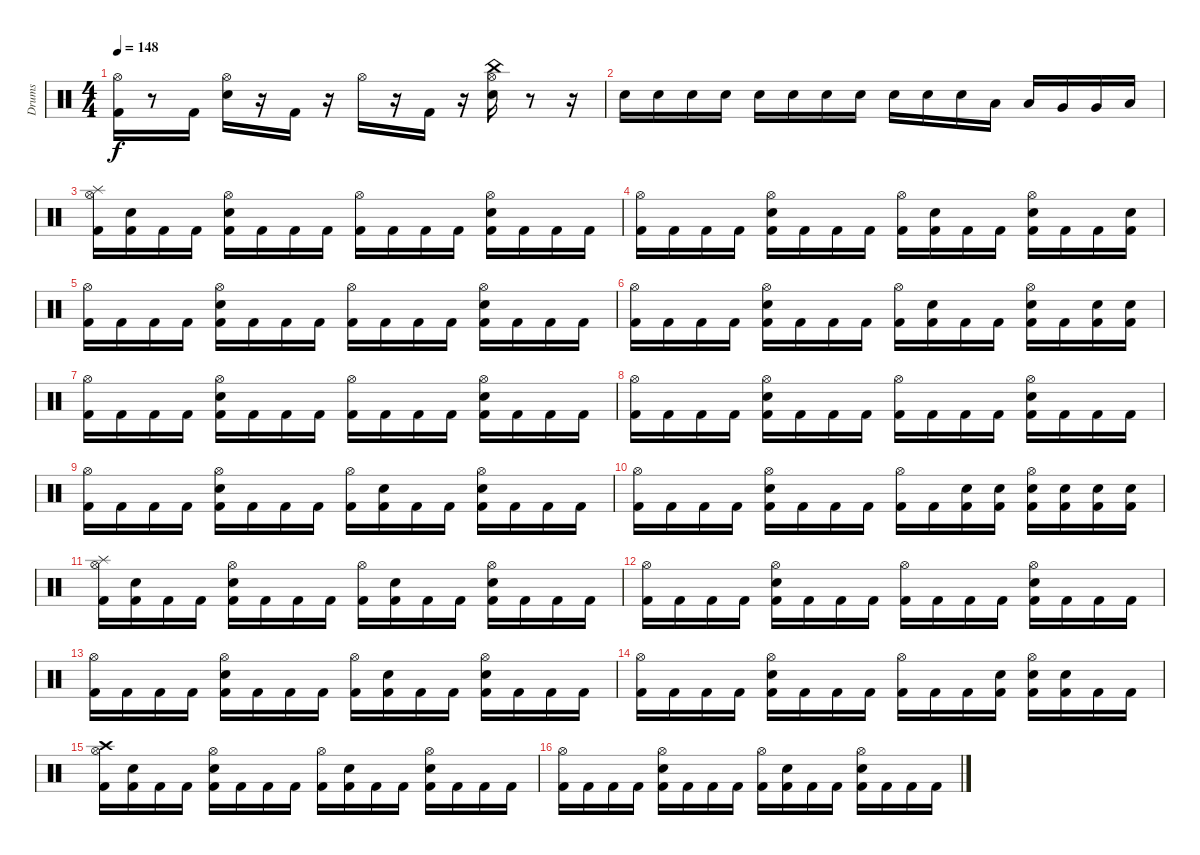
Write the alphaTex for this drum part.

\track ("Drums" "Drums") {instrument percussion}
\staff {score}
\articulation defaults
\ts (4 4)
\tempo 148
\clef neutral
\ks c
("Hi-Hat (open)" "Kick (hit) 2").16{dy f} r.8 "Kick (hit) 2".16 ("Hi-Hat (open)" "Snare (hit) 2").16 r.16 "Kick (hit) 2".16 r.16 "Hi-Hat (open)".16 r.16 "Kick (hit) 2".16 r.16 ("Hi-Hat (open)" "China (hit)" "Snare (hit) 2").16 r.8 r.16 |
"Snare (hit) 2".16 "Snare (hit) 2".16 "Snare (hit) 2".16 "Snare (hit) 2".16 "Snare (hit) 2".16 "Snare (hit) 2".16 "Snare (hit) 2".16 "Snare (hit) 2".16 "Snare (hit) 2".16 "Snare (hit) 2".16 "Snare (hit) 2".16 "Low Tom (hit)".16 "Low Tom (hit)".16 "Very Low Tom (hit)".16 "Very Low Tom (hit)".16 "Low Floor Tom (hit)".16 |
("Hi-Hat (open)" "Splash (hit)" "Kick (hit) 2").16 ("Snare (hit)" "Kick (hit) 2").16 "Kick (hit) 2".16 "Kick (hit) 2".16 ("Hi-Hat (open)" "Kick (hit) 2" "Snare (hit) 2").16 "Kick (hit) 2".16 "Kick (hit) 2".16 "Kick (hit) 2".16 ("Hi-Hat (open)" "Kick (hit) 2").16 "Kick (hit) 2".16 "Kick (hit) 2".16 "Kick (hit) 2".16 ("Hi-Hat (open)" "Kick (hit) 2" "Snare (hit) 2").16 "Kick (hit) 2".16 "Kick (hit) 2".16 "Kick (hit) 2".16 |
("Hi-Hat (open)" "Kick (hit) 2").16 "Kick (hit) 2".16 "Kick (hit) 2".16 "Kick (hit) 2".16 ("Hi-Hat (open)" "Kick (hit) 2" "Snare (hit) 2").16 "Kick (hit) 2".16 "Kick (hit) 2".16 "Kick (hit) 2".16 ("Hi-Hat (open)" "Kick (hit) 2").16 ("Kick (hit) 2" "Snare (hit) 2").16 "Kick (hit) 2".16 "Kick (hit) 2".16 ("Hi-Hat (open)" "Kick (hit) 2" "Snare (hit) 2").16 "Kick (hit) 2".16 "Kick (hit) 2".16 ("Kick (hit) 2" "Snare (hit) 2").16 |
("Hi-Hat (open)" "Kick (hit) 2").16 "Kick (hit) 2".16 "Kick (hit) 2".16 "Kick (hit) 2".16 ("Hi-Hat (open)" "Kick (hit) 2" "Snare (hit) 2").16 "Kick (hit) 2".16 "Kick (hit) 2".16 "Kick (hit) 2".16 ("Hi-Hat (open)" "Kick (hit) 2").16 "Kick (hit) 2".16 "Kick (hit) 2".16 "Kick (hit) 2".16 ("Hi-Hat (open)" "Kick (hit) 2" "Snare (hit) 2").16 "Kick (hit) 2".16 "Kick (hit) 2".16 "Kick (hit) 2".16 |
("Hi-Hat (open)" "Kick (hit) 2").16 "Kick (hit) 2".16 "Kick (hit) 2".16 "Kick (hit) 2".16 ("Hi-Hat (open)" "Kick (hit) 2" "Snare (hit) 2").16 "Kick (hit) 2".16 "Kick (hit) 2".16 "Kick (hit) 2".16 ("Hi-Hat (open)" "Kick (hit) 2").16 ("Kick (hit) 2" "Snare (hit) 2").16 "Kick (hit) 2".16 "Kick (hit) 2".16 ("Hi-Hat (open)" "Kick (hit) 2" "Snare (hit) 2").16 "Kick (hit) 2".16 ("Kick (hit) 2" "Snare (hit) 2").16 ("Kick (hit) 2" "Snare (hit) 2").16 |
("Hi-Hat (open)" "Kick (hit) 2").16 "Kick (hit) 2".16 "Kick (hit) 2".16 "Kick (hit) 2".16 ("Hi-Hat (open)" "Kick (hit) 2" "Snare (hit) 2").16 "Kick (hit) 2".16 "Kick (hit) 2".16 "Kick (hit) 2".16 ("Hi-Hat (open)" "Kick (hit) 2").16 "Kick (hit) 2".16 "Kick (hit) 2".16 "Kick (hit) 2".16 ("Hi-Hat (open)" "Kick (hit) 2" "Snare (hit) 2").16 "Kick (hit) 2".16 "Kick (hit) 2".16 "Kick (hit) 2".16 |
("Hi-Hat (open)" "Kick (hit) 2").16 "Kick (hit) 2".16 "Kick (hit) 2".16 "Kick (hit) 2".16 ("Hi-Hat (open)" "Kick (hit) 2" "Snare (hit) 2").16 "Kick (hit) 2".16 "Kick (hit) 2".16 "Kick (hit) 2".16 ("Hi-Hat (open)" "Kick (hit) 2").16 "Kick (hit) 2".16 "Kick (hit) 2".16 "Kick (hit) 2".16 ("Hi-Hat (open)" "Kick (hit) 2" "Snare (hit) 2").16 "Kick (hit) 2".16 "Kick (hit) 2".16 "Kick (hit) 2".16 |
("Hi-Hat (open)" "Kick (hit) 2").16 "Kick (hit) 2".16 "Kick (hit) 2".16 "Kick (hit) 2".16 ("Hi-Hat (open)" "Kick (hit) 2" "Snare (hit) 2").16 "Kick (hit) 2".16 "Kick (hit) 2".16 "Kick (hit) 2".16 ("Hi-Hat (open)" "Kick (hit) 2").16 ("Kick (hit) 2" "Snare (hit) 2").16 "Kick (hit) 2".16 "Kick (hit) 2".16 ("Hi-Hat (open)" "Kick (hit) 2" "Snare (hit) 2").16 "Kick (hit) 2".16 "Kick (hit) 2".16 "Kick (hit) 2".16 |
("Hi-Hat (open)" "Kick (hit) 2").16 "Kick (hit) 2".16 "Kick (hit) 2".16 "Kick (hit) 2".16 ("Hi-Hat (open)" "Kick (hit) 2" "Snare (hit) 2").16 "Kick (hit) 2".16 "Kick (hit) 2".16 "Kick (hit) 2".16 ("Hi-Hat (open)" "Kick (hit) 2").16 "Kick (hit) 2".16 ("Kick (hit) 2" "Snare (hit) 2").16 ("Kick (hit) 2" "Snare (hit) 2").16 ("Hi-Hat (open)" "Kick (hit) 2" "Snare (hit) 2").16 ("Kick (hit) 2" "Snare (hit) 2").16 ("Kick (hit) 2" "Snare (hit) 2").16 ("Kick (hit) 2" "Snare (hit) 2").16 |
("Hi-Hat (open)" "Splash (hit)" "Kick (hit) 2").16 ("Snare (hit)" "Kick (hit) 2").16 "Kick (hit) 2".16 "Kick (hit) 2".16 ("Hi-Hat (open)" "Kick (hit) 2" "Snare (hit) 2").16 "Kick (hit) 2".16 "Kick (hit) 2".16 "Kick (hit) 2".16 ("Hi-Hat (open)" "Kick (hit) 2").16 ("Kick (hit) 2" "Snare (hit) 2").16 "Kick (hit) 2".16 "Kick (hit) 2".16 ("Hi-Hat (open)" "Kick (hit) 2" "Snare (hit) 2").16 "Kick (hit) 2".16 "Kick (hit) 2".16 "Kick (hit) 2".16 |
("Hi-Hat (open)" "Kick (hit) 2").16 "Kick (hit) 2".16 "Kick (hit) 2".16 "Kick (hit) 2".16 ("Hi-Hat (open)" "Kick (hit) 2" "Snare (hit) 2").16 "Kick (hit) 2".16 "Kick (hit) 2".16 "Kick (hit) 2".16 ("Hi-Hat (open)" "Kick (hit) 2").16 "Kick (hit) 2".16 "Kick (hit) 2".16 "Kick (hit) 2".16 ("Hi-Hat (open)" "Kick (hit) 2" "Snare (hit) 2").16 "Kick (hit) 2".16 "Kick (hit) 2".16 "Kick (hit) 2".16 |
("Hi-Hat (open)" "Kick (hit) 2").16 "Kick (hit) 2".16 "Kick (hit) 2".16 "Kick (hit) 2".16 ("Hi-Hat (open)" "Kick (hit) 2" "Snare (hit) 2").16 "Kick (hit) 2".16 "Kick (hit) 2".16 "Kick (hit) 2".16 ("Hi-Hat (open)" "Kick (hit) 2").16 ("Kick (hit) 2" "Snare (hit) 2").16 "Kick (hit) 2".16 "Kick (hit) 2".16 ("Hi-Hat (open)" "Kick (hit) 2" "Snare (hit) 2").16 "Kick (hit) 2".16 "Kick (hit) 2".16 "Kick (hit) 2".16 |
("Hi-Hat (open)" "Kick (hit) 2").16 "Kick (hit) 2".16 "Kick (hit) 2".16 "Kick (hit) 2".16 ("Hi-Hat (open)" "Kick (hit) 2" "Snare (hit) 2").16 "Kick (hit) 2".16 "Kick (hit) 2".16 "Kick (hit) 2".16 ("Hi-Hat (open)" "Kick (hit) 2").16 "Kick (hit) 2".16 "Kick (hit) 2".16 ("Kick (hit) 2" "Snare (hit) 2").16 ("Hi-Hat (open)" "Kick (hit) 2" "Snare (hit) 2").16 ("Kick (hit) 2" "Snare (hit) 2").16 "Kick (hit) 2".16 "Kick (hit) 2".16 |
("Hi-Hat (open)" "Crash high (hit)" "Kick (hit) 2").16 ("Snare (hit)" "Kick (hit) 2").16 "Kick (hit) 2".16 "Kick (hit) 2".16 ("Hi-Hat (open)" "Kick (hit) 2" "Snare (hit) 2").16 "Kick (hit) 2".16 "Kick (hit) 2".16 "Kick (hit) 2".16 ("Hi-Hat (open)" "Kick (hit) 2").16 ("Kick (hit) 2" "Snare (hit) 2").16 "Kick (hit) 2".16 "Kick (hit) 2".16 ("Hi-Hat (open)" "Kick (hit) 2" "Snare (hit) 2").16 "Kick (hit) 2".16 "Kick (hit) 2".16 "Kick (hit) 2".16 |
("Hi-Hat (open)" "Kick (hit) 2").16 "Kick (hit) 2".16 "Kick (hit) 2".16 "Kick (hit) 2".16 ("Hi-Hat (open)" "Kick (hit) 2" "Snare (hit) 2").16 "Kick (hit) 2".16 "Kick (hit) 2".16 "Kick (hit) 2".16 ("Hi-Hat (open)" "Kick (hit) 2").16 ("Kick (hit) 2" "Snare (hit) 2").16 "Kick (hit) 2".16 "Kick (hit) 2".16 ("Hi-Hat (open)" "Kick (hit) 2" "Snare (hit) 2").16 "Kick (hit) 2".16 "Kick (hit) 2".16 "Kick (hit) 2".16
